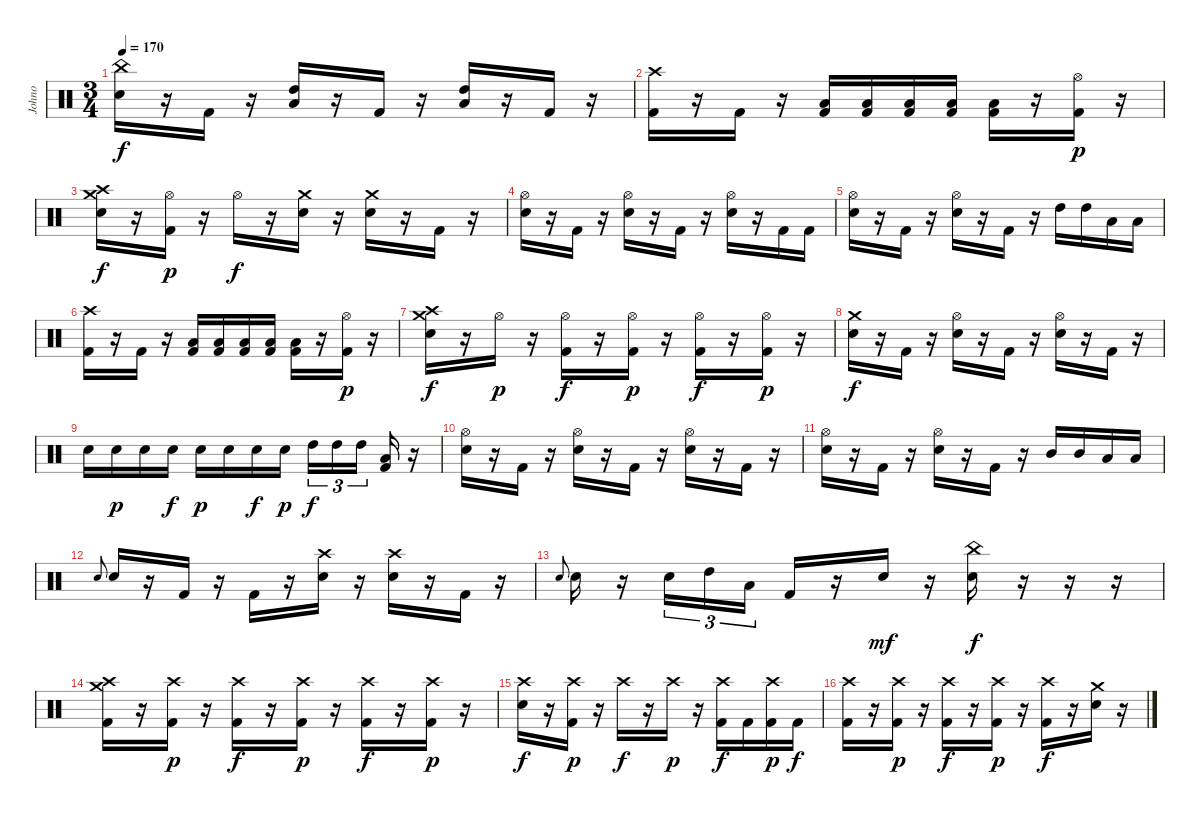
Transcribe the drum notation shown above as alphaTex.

\track ("Johno" "Johno") {instrument percussion}
\staff {score}
\articulation defaults
\ts (3 4)
\tempo 170
\clef neutral
\ks c
("China (hit)" "Electric Snare (hit)").16{dy f} r.16 "Kick (hit) 2".16 r.16 ("Low Floor Tom (hit)" "High Tom (hit)").16 r.16 "Kick (hit) 2".16 r.16 ("High Tom (hit)" "Low Floor Tom (hit)").16 r.16 "Kick (hit) 2".16 r.16 |
("Crash high (hit)" "Kick (hit) 2").16 r.16 "Kick (hit) 2".16 r.16 ("Low Floor Tom (hit)" "Kick (hit) 2").16 ("Low Floor Tom (hit)" "Kick (hit) 2").16 ("Low Floor Tom (hit)" "Kick (hit) 2").16 ("Low Floor Tom (hit)" "Kick (hit) 2").16 ("Low Floor Tom (hit)" "Kick (hit) 2").16 r.16 ("Hi-Hat (open)" "Kick (hit) 2").16{dy p} r.16 |
("Crash medium (hit)" "Crash high (hit)" "Electric Snare (hit)").16{dy f} r.16 ("Hi-Hat (open)" "Kick (hit) 2").16{dy p} r.16 "Hi-Hat (open)".16{dy f} r.16 ("Crash medium (hit)" "Electric Snare (hit)").16 r.16 ("Crash medium (hit)" "Electric Snare (hit)").16 r.16 "Kick (hit) 2".16 r.16 |
("Hi-Hat (open)" "Electric Snare (hit)").16 r.16 "Kick (hit) 2".16 r.16 ("Hi-Hat (open)" "Electric Snare (hit)").16 r.16 "Kick (hit) 2".16 r.16 ("Hi-Hat (open)" "Electric Snare (hit)").16 r.16 "Kick (hit) 2".16 "Kick (hit) 2".16 |
("Hi-Hat (open)" "Electric Snare (hit)").16 r.16 "Kick (hit) 2".16 r.16 ("Hi-Hat (open)" "Electric Snare (hit)").16 r.16 "Kick (hit) 2".16 r.16 "High Tom (hit)".16 "High Tom (hit)".16 "Low Floor Tom (hit)".16 "Low Floor Tom (hit)".16 |
("Crash high (hit)" "Kick (hit) 2").16 r.16 "Kick (hit) 2".16 r.16 ("Low Floor Tom (hit)" "Kick (hit) 2").16 ("Low Floor Tom (hit)" "Kick (hit) 2").16 ("Low Floor Tom (hit)" "Kick (hit) 2").16 ("Low Floor Tom (hit)" "Kick (hit) 2").16 ("Low Floor Tom (hit)" "Kick (hit) 2").16 r.16 ("Hi-Hat (open)" "Kick (hit) 2").16{dy p} r.16 |
("Crash medium (hit)" "Crash high (hit)" "Electric Snare (hit)").16{dy f} r.16 "Hi-Hat (open)".16{dy p} r.16 ("Hi-Hat (open)" "Kick (hit) 2").16{dy f} r.16 ("Hi-Hat (open)" "Kick (hit) 2").16{dy p} r.16 ("Hi-Hat (open)" "Kick (hit) 2").16{dy f} r.16 ("Hi-Hat (open)" "Kick (hit) 2").16{dy p} r.16 |
("Crash medium (hit)" "Electric Snare (hit)").16{dy f} r.16 "Kick (hit) 2".16 r.16 ("Hi-Hat (open)" "Electric Snare (hit)").16 r.16 "Kick (hit) 2".16 r.16 ("Hi-Hat (open)" "Electric Snare (hit)").16 r.16 "Kick (hit) 2".16 r.16 |
"Electric Snare (hit)".16 "Electric Snare (hit)".16{dy p} "Electric Snare (hit)".16 "Electric Snare (hit)".16{dy f} "Electric Snare (hit)".16{dy p} "Electric Snare (hit)".16 "Electric Snare (hit)".16{dy f} "Electric Snare (hit)".16{dy p} "High Tom (hit)".16{tu (3 2) dy f} "High Tom (hit)".16{tu (3 2)} "High Tom (hit)".16{tu (3 2) beam splitsecondary} ("Low Floor Tom (hit)" "Kick (hit) 2").16 r.16 |
("Hi-Hat (open)" "Electric Snare (hit)").16 r.16 "Kick (hit) 2".16 r.16 ("Hi-Hat (open)" "Electric Snare (hit)").16 r.16 "Kick (hit) 2".16 r.16 ("Hi-Hat (open)" "Electric Snare (hit)").16 r.16 "Kick (hit) 2".16 r.16 |
("Hi-Hat (open)" "Electric Snare (hit)").16 r.16 "Kick (hit) 2".16 r.16 ("Hi-Hat (open)" "Electric Snare (hit)").16 r.16 "Kick (hit) 2".16 r.16 "Mid Tom (hit)".16 "Mid Tom (hit)".16 "Low Tom (hit)".16 "Low Tom (hit)".16 |
"Electric Snare (hit)".8{gr onbeat} "Electric Snare (hit)".16 r.16 "Kick (hit) 2".16 r.16 "Kick (hit) 2".16 r.16 ("Crash high (hit)" "Electric Snare (hit)").16 r.16 ("Crash high (hit)" "Electric Snare (hit)").16 r.16 "Kick (hit) 2".16 r.16 |
"Electric Snare (hit)".8{gr onbeat} "Electric Snare (hit)".16 r.16 "Electric Snare (hit)".16{tu (3 2)} "High Tom (hit)".16{tu (3 2)} "Low Floor Tom (hit)".16{tu (3 2)} "Kick (hit) 2".16 r.16 "Electric Snare (hit)".16{dy mf} r.16 ("China (hit)" "Electric Snare (hit)").16{dy f} r.16 r.16 r.16 |
("Crash medium (hit)" "Crash high (hit)" "Kick (hit) 2").16 r.16 ("Crash high (hit)" "Kick (hit) 2").16{dy p} r.16 ("Crash high (hit)" "Kick (hit) 2").16{dy f} r.16 ("Crash high (hit)" "Kick (hit) 2").16{dy p} r.16 ("Crash high (hit)" "Kick (hit) 2").16{dy f} r.16 ("Crash high (hit)" "Kick (hit) 2").16{dy p} r.16 |
("Crash high (hit)" "Electric Snare (hit)").16{dy f} r.16 ("Crash high (hit)" "Kick (hit) 2").16{dy p} r.16 "Crash high (hit)".16{dy f} r.16 "Crash high (hit)".16{dy p} r.16 ("Crash high (hit)" "Kick (hit) 2").16{dy f} "Kick (hit) 2".16 ("Crash high (hit)" "Kick (hit) 2").16{dy p} "Kick (hit) 2".16{dy f} |
("Crash high (hit)" "Kick (hit) 2").16 r.16 ("Crash high (hit)" "Kick (hit) 2").16{dy p} r.16 ("Crash high (hit)" "Kick (hit) 2").16{dy f} r.16 ("Crash high (hit)" "Kick (hit) 2").16{dy p} r.16 ("Crash high (hit)" "Kick (hit) 2").16{dy f} r.16 ("Crash medium (hit)" "Electric Snare (hit)").16 r.16
